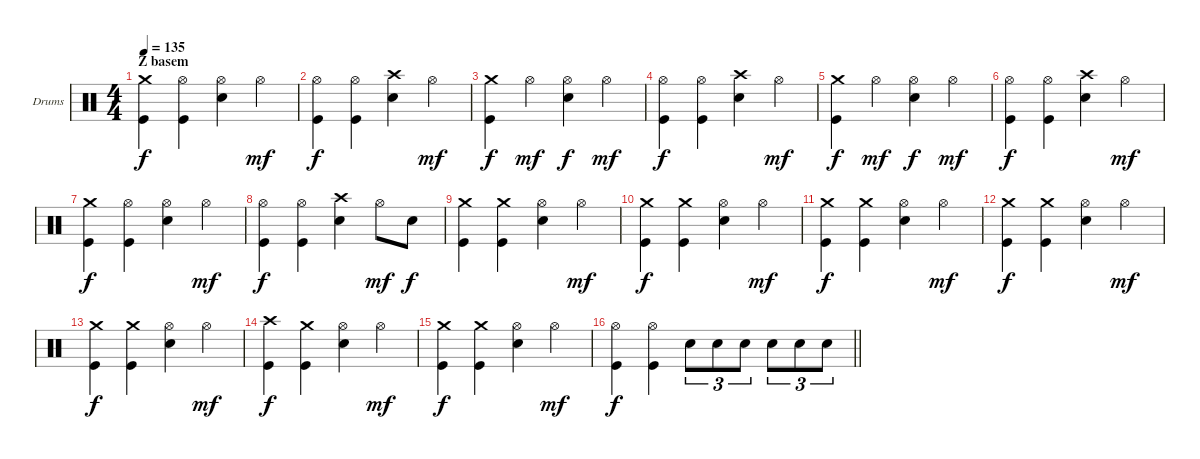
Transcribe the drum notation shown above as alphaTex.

\bracketExtendMode groupsimilarinstruments
\firstSystemTrackNameOrientation horizontal
\otherSystemsTrackNameOrientation horizontal
\track ("Drumkit" "Drums") {instrument percussion}
\staff {score}
\articulation defaults
\ts (4 4)
\section ("" "Z basem")
\tempo 135
\clef neutral
\ks c
("Kick (hit)" "Crash medium (hit)").4{dy f} ("Kick (hit)" "Hi-Hat (open)").4 ("Snare (hit) 2" "Hi-Hat (open)").4 "Hi-Hat (open)".4{dy mf} |
("Kick (hit)" "Hi-Hat (open)").4{dy f} ("Kick (hit)" "Hi-Hat (open)").4 ("Snare (hit) 2" "Crash high (hit)").4 "Hi-Hat (open)".4{dy mf} |
("Kick (hit)" "Crash medium (hit)").4{dy f} "Hi-Hat (open)".4{dy mf} ("Snare (hit) 2" "Hi-Hat (open)").4{dy f} "Hi-Hat (open)".4{dy mf} |
("Kick (hit)" "Hi-Hat (open)").4{dy f} ("Kick (hit)" "Hi-Hat (open)").4 ("Snare (hit) 2" "Crash high (hit)").4 "Hi-Hat (open)".4{dy mf} |
("Kick (hit)" "Crash medium (hit)").4{dy f} "Hi-Hat (open)".4{dy mf} ("Snare (hit) 2" "Hi-Hat (open)").4{dy f} "Hi-Hat (open)".4{dy mf} |
("Kick (hit)" "Hi-Hat (open)").4{dy f} ("Kick (hit)" "Hi-Hat (open)").4 ("Snare (hit) 2" "Crash high (hit)").4 "Hi-Hat (open)".4{dy mf} |
("Kick (hit)" "Crash medium (hit)").4{dy f} ("Kick (hit)" "Hi-Hat (open)").4 ("Snare (hit) 2" "Hi-Hat (open)").4 "Hi-Hat (open)".4{dy mf} |
("Kick (hit)" "Hi-Hat (open)").4{dy f} ("Kick (hit)" "Hi-Hat (open)").4 ("Snare (hit) 2" "Crash high (hit)").4 "Hi-Hat (open)".8{dy mf} "Snare (hit) 2".8{dy f} |
("Kick (hit)" "Crash medium (hit)").4 ("Kick (hit)" "Crash medium (hit)").4 ("Snare (hit) 2" "Hi-Hat (open)").4 "Hi-Hat (open)".4{dy mf} |
("Kick (hit)" "Crash medium (hit)").4{dy f} ("Kick (hit)" "Crash medium (hit)").4 ("Snare (hit) 2" "Hi-Hat (open)").4 "Hi-Hat (open)".4{dy mf} |
("Kick (hit)" "Crash medium (hit)").4{dy f} ("Kick (hit)" "Crash medium (hit)").4 ("Snare (hit) 2" "Hi-Hat (open)").4 "Hi-Hat (open)".4{dy mf} |
("Kick (hit)" "Crash medium (hit)").4{dy f} ("Kick (hit)" "Crash medium (hit)").4 ("Snare (hit) 2" "Hi-Hat (open)").4 "Hi-Hat (open)".4{dy mf} |
("Kick (hit)" "Crash medium (hit)").4{dy f} ("Kick (hit)" "Crash medium (hit)").4 ("Snare (hit) 2" "Hi-Hat (open)").4 "Hi-Hat (open)".4{dy mf} |
("Kick (hit)" "Crash high (hit)").4{dy f} ("Kick (hit)" "Crash medium (hit)").4 ("Snare (hit) 2" "Hi-Hat (open)").4 "Hi-Hat (open)".4{dy mf} |
("Kick (hit)" "Crash medium (hit)").4{dy f} ("Kick (hit)" "Crash medium (hit)").4 ("Snare (hit) 2" "Hi-Hat (open)").4 "Hi-Hat (open)".4{dy mf} |
\barLineRight lightlight
("Kick (hit)" "Hi-Hat (open)").4{dy f} ("Kick (hit)" "Hi-Hat (open)").4 "Snare (hit) 2".8{tu (3 2)} "Snare (hit) 2".8{tu (3 2)} "Snare (hit) 2".8{tu (3 2)} "Snare (hit) 2".8{tu (3 2)} "Snare (hit) 2".8{tu (3 2)} "Snare (hit) 2".8{tu (3 2)}
